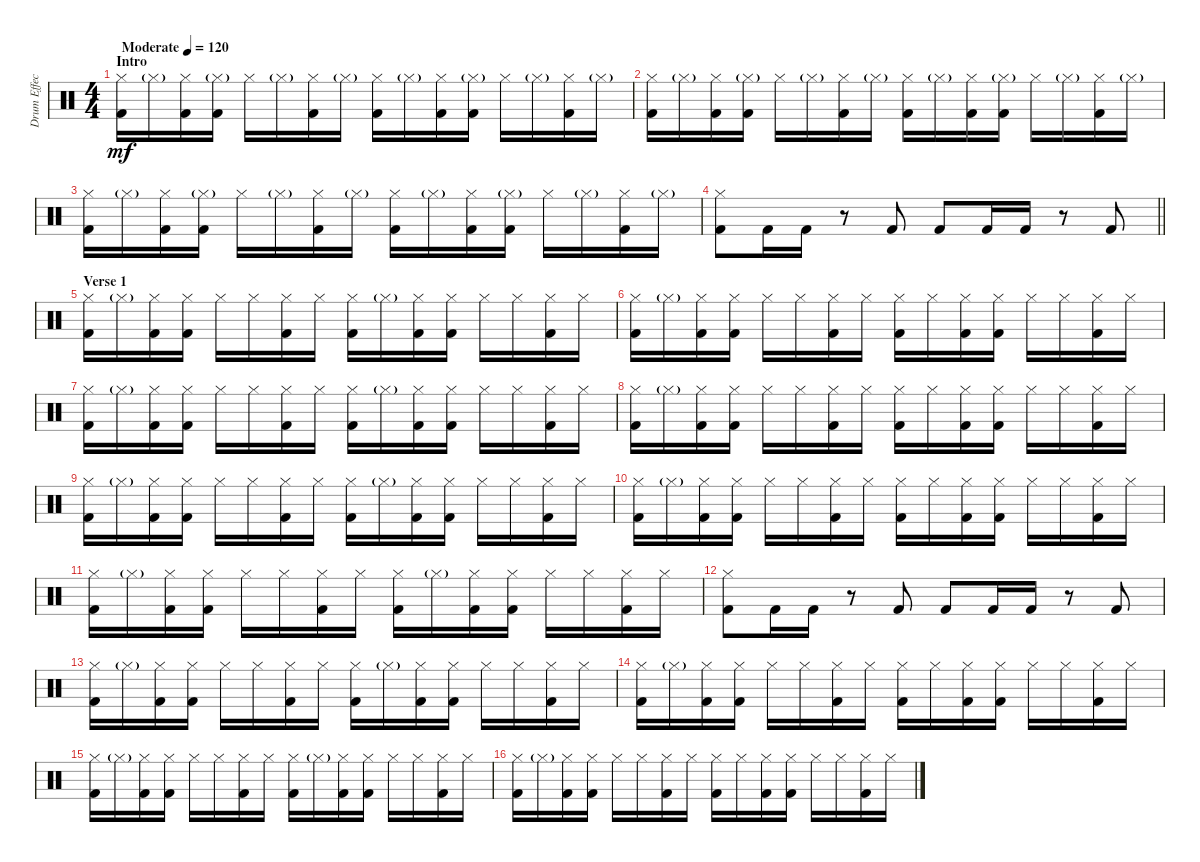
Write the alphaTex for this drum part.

\track ("Drum Effects" "Drum Effec") {instrument percussion}
\staff {score}
\articulation defaults
\ts (4 4)
\section ("" "Intro")
\tempo (120 "Moderate")
\clef neutral
\ks c
("Hi-Hat (closed)" "Kick (hit) 2").16{dy mf} "Hi-Hat (closed)"{g}.16 ("Hi-Hat (closed)" "Kick (hit) 2").16 ("Hi-Hat (closed)"{g} "Kick (hit) 2").16 "Hi-Hat (closed)".16 "Hi-Hat (closed)"{g}.16 ("Hi-Hat (closed)" "Kick (hit) 2").16 "Hi-Hat (closed)"{g}.16 ("Hi-Hat (closed)" "Kick (hit) 2").16 "Hi-Hat (closed)"{g}.16 ("Hi-Hat (closed)" "Kick (hit) 2").16 ("Hi-Hat (closed)"{g} "Kick (hit) 2").16 "Hi-Hat (closed)".16 "Hi-Hat (closed)"{g}.16 ("Hi-Hat (closed)" "Kick (hit) 2").16 "Hi-Hat (closed)"{g}.16 |
("Hi-Hat (closed)" "Kick (hit) 2").16 "Hi-Hat (closed)"{g}.16 ("Hi-Hat (closed)" "Kick (hit) 2").16 ("Hi-Hat (closed)"{g} "Kick (hit) 2").16 "Hi-Hat (closed)".16 "Hi-Hat (closed)"{g}.16 ("Hi-Hat (closed)" "Kick (hit) 2").16 "Hi-Hat (closed)"{g}.16 ("Hi-Hat (closed)" "Kick (hit) 2").16 "Hi-Hat (closed)"{g}.16 ("Hi-Hat (closed)" "Kick (hit) 2").16 ("Hi-Hat (closed)"{g} "Kick (hit) 2").16 "Hi-Hat (closed)".16 "Hi-Hat (closed)"{g}.16 ("Hi-Hat (closed)" "Kick (hit) 2").16 "Hi-Hat (closed)"{g}.16 |
("Hi-Hat (closed)" "Kick (hit) 2").16 "Hi-Hat (closed)"{g}.16 ("Hi-Hat (closed)" "Kick (hit) 2").16 ("Hi-Hat (closed)"{g} "Kick (hit) 2").16 "Hi-Hat (closed)".16 "Hi-Hat (closed)"{g}.16 ("Hi-Hat (closed)" "Kick (hit) 2").16 "Hi-Hat (closed)"{g}.16 ("Hi-Hat (closed)" "Kick (hit) 2").16 "Hi-Hat (closed)"{g}.16 ("Hi-Hat (closed)" "Kick (hit) 2").16 ("Hi-Hat (closed)"{g} "Kick (hit) 2").16 "Hi-Hat (closed)".16 "Hi-Hat (closed)"{g}.16 ("Hi-Hat (closed)" "Kick (hit) 2").16 "Hi-Hat (closed)"{g}.16 |
\barLineRight lightlight
("Hi-Hat (closed)" "Kick (hit) 2").8 "Kick (hit) 2".16 "Kick (hit) 2".16 r.8 "Kick (hit) 2".8 "Kick (hit) 2".8 "Kick (hit) 2".16 "Kick (hit) 2".16 r.8 "Kick (hit) 2".8 |
\section ("" "Verse 1")
("Hi-Hat (closed)" "Kick (hit) 2").16 "Hi-Hat (closed)"{g}.16 ("Hi-Hat (closed)" "Kick (hit) 2").16 ("Hi-Hat (closed)" "Kick (hit) 2").16 "Hi-Hat (closed)".16 "Hi-Hat (closed)".16 ("Hi-Hat (closed)" "Kick (hit) 2").16 "Hi-Hat (closed)".16 ("Hi-Hat (closed)" "Kick (hit) 2").16 "Hi-Hat (closed)"{g}.16 ("Hi-Hat (closed)" "Kick (hit) 2").16 ("Hi-Hat (closed)" "Kick (hit) 2").16 "Hi-Hat (closed)".16 "Hi-Hat (closed)".16 ("Hi-Hat (closed)" "Kick (hit) 2").16 "Hi-Hat (closed)".16 |
("Hi-Hat (closed)" "Kick (hit) 2").16 "Hi-Hat (closed)"{g}.16 ("Hi-Hat (closed)" "Kick (hit) 2").16 ("Hi-Hat (closed)" "Kick (hit) 2").16 "Hi-Hat (closed)".16 "Hi-Hat (closed)".16 ("Hi-Hat (closed)" "Kick (hit) 2").16 "Hi-Hat (closed)".16 ("Hi-Hat (closed)" "Kick (hit) 2").16 "Hi-Hat (closed)".16 ("Hi-Hat (closed)" "Kick (hit) 2").16 ("Hi-Hat (closed)" "Kick (hit) 2").16 "Hi-Hat (closed)".16 "Hi-Hat (closed)".16 ("Hi-Hat (closed)" "Kick (hit) 2").16 "Hi-Hat (closed)".16 |
("Hi-Hat (closed)" "Kick (hit) 2").16 "Hi-Hat (closed)"{g}.16 ("Hi-Hat (closed)" "Kick (hit) 2").16 ("Hi-Hat (closed)" "Kick (hit) 2").16 "Hi-Hat (closed)".16 "Hi-Hat (closed)".16 ("Hi-Hat (closed)" "Kick (hit) 2").16 "Hi-Hat (closed)".16 ("Hi-Hat (closed)" "Kick (hit) 2").16 "Hi-Hat (closed)"{g}.16 ("Hi-Hat (closed)" "Kick (hit) 2").16 ("Hi-Hat (closed)" "Kick (hit) 2").16 "Hi-Hat (closed)".16 "Hi-Hat (closed)".16 ("Hi-Hat (closed)" "Kick (hit) 2").16 "Hi-Hat (closed)".16 |
("Hi-Hat (closed)" "Kick (hit) 2").16 "Hi-Hat (closed)"{g}.16 ("Hi-Hat (closed)" "Kick (hit) 2").16 ("Hi-Hat (closed)" "Kick (hit) 2").16 "Hi-Hat (closed)".16 "Hi-Hat (closed)".16 ("Hi-Hat (closed)" "Kick (hit) 2").16 "Hi-Hat (closed)".16 ("Hi-Hat (closed)" "Kick (hit) 2").16 "Hi-Hat (closed)".16 ("Hi-Hat (closed)" "Kick (hit) 2").16 ("Hi-Hat (closed)" "Kick (hit) 2").16 "Hi-Hat (closed)".16 "Hi-Hat (closed)".16 ("Hi-Hat (closed)" "Kick (hit) 2").16 "Hi-Hat (closed)".16 |
("Hi-Hat (closed)" "Kick (hit) 2").16 "Hi-Hat (closed)"{g}.16 ("Hi-Hat (closed)" "Kick (hit) 2").16 ("Hi-Hat (closed)" "Kick (hit) 2").16 "Hi-Hat (closed)".16 "Hi-Hat (closed)".16 ("Hi-Hat (closed)" "Kick (hit) 2").16 "Hi-Hat (closed)".16 ("Hi-Hat (closed)" "Kick (hit) 2").16 "Hi-Hat (closed)"{g}.16 ("Hi-Hat (closed)" "Kick (hit) 2").16 ("Hi-Hat (closed)" "Kick (hit) 2").16 "Hi-Hat (closed)".16 "Hi-Hat (closed)".16 ("Hi-Hat (closed)" "Kick (hit) 2").16 "Hi-Hat (closed)".16 |
("Hi-Hat (closed)" "Kick (hit) 2").16 "Hi-Hat (closed)"{g}.16 ("Hi-Hat (closed)" "Kick (hit) 2").16 ("Hi-Hat (closed)" "Kick (hit) 2").16 "Hi-Hat (closed)".16 "Hi-Hat (closed)".16 ("Hi-Hat (closed)" "Kick (hit) 2").16 "Hi-Hat (closed)".16 ("Hi-Hat (closed)" "Kick (hit) 2").16 "Hi-Hat (closed)".16 ("Hi-Hat (closed)" "Kick (hit) 2").16 ("Hi-Hat (closed)" "Kick (hit) 2").16 "Hi-Hat (closed)".16 "Hi-Hat (closed)".16 ("Hi-Hat (closed)" "Kick (hit) 2").16 "Hi-Hat (closed)".16 |
("Hi-Hat (closed)" "Kick (hit) 2").16 "Hi-Hat (closed)"{g}.16 ("Hi-Hat (closed)" "Kick (hit) 2").16 ("Hi-Hat (closed)" "Kick (hit) 2").16 "Hi-Hat (closed)".16 "Hi-Hat (closed)".16 ("Hi-Hat (closed)" "Kick (hit) 2").16 "Hi-Hat (closed)".16 ("Hi-Hat (closed)" "Kick (hit) 2").16 "Hi-Hat (closed)"{g}.16 ("Hi-Hat (closed)" "Kick (hit) 2").16 ("Hi-Hat (closed)" "Kick (hit) 2").16 "Hi-Hat (closed)".16 "Hi-Hat (closed)".16 ("Hi-Hat (closed)" "Kick (hit) 2").16 "Hi-Hat (closed)".16 |
("Hi-Hat (closed)" "Kick (hit) 2").8 "Kick (hit) 2".16 "Kick (hit) 2".16 r.8 "Kick (hit) 2".8 "Kick (hit) 2".8 "Kick (hit) 2".16 "Kick (hit) 2".16 r.8 "Kick (hit) 2".8 |
("Hi-Hat (closed)" "Kick (hit) 2").16 "Hi-Hat (closed)"{g}.16 ("Hi-Hat (closed)" "Kick (hit) 2").16 ("Hi-Hat (closed)" "Kick (hit) 2").16 "Hi-Hat (closed)".16 "Hi-Hat (closed)".16 ("Hi-Hat (closed)" "Kick (hit) 2").16 "Hi-Hat (closed)".16 ("Hi-Hat (closed)" "Kick (hit) 2").16 "Hi-Hat (closed)"{g}.16 ("Hi-Hat (closed)" "Kick (hit) 2").16 ("Hi-Hat (closed)" "Kick (hit) 2").16 "Hi-Hat (closed)".16 "Hi-Hat (closed)".16 ("Hi-Hat (closed)" "Kick (hit) 2").16 "Hi-Hat (closed)".16 |
("Hi-Hat (closed)" "Kick (hit) 2").16 "Hi-Hat (closed)"{g}.16 ("Hi-Hat (closed)" "Kick (hit) 2").16 ("Hi-Hat (closed)" "Kick (hit) 2").16 "Hi-Hat (closed)".16 "Hi-Hat (closed)".16 ("Hi-Hat (closed)" "Kick (hit) 2").16 "Hi-Hat (closed)".16 ("Hi-Hat (closed)" "Kick (hit) 2").16 "Hi-Hat (closed)".16 ("Hi-Hat (closed)" "Kick (hit) 2").16 ("Hi-Hat (closed)" "Kick (hit) 2").16 "Hi-Hat (closed)".16 "Hi-Hat (closed)".16 ("Hi-Hat (closed)" "Kick (hit) 2").16 "Hi-Hat (closed)".16 |
("Hi-Hat (closed)" "Kick (hit) 2").16 "Hi-Hat (closed)"{g}.16 ("Hi-Hat (closed)" "Kick (hit) 2").16 ("Hi-Hat (closed)" "Kick (hit) 2").16 "Hi-Hat (closed)".16 "Hi-Hat (closed)".16 ("Hi-Hat (closed)" "Kick (hit) 2").16 "Hi-Hat (closed)".16 ("Hi-Hat (closed)" "Kick (hit) 2").16 "Hi-Hat (closed)"{g}.16 ("Hi-Hat (closed)" "Kick (hit) 2").16 ("Hi-Hat (closed)" "Kick (hit) 2").16 "Hi-Hat (closed)".16 "Hi-Hat (closed)".16 ("Hi-Hat (closed)" "Kick (hit) 2").16 "Hi-Hat (closed)".16 |
("Hi-Hat (closed)" "Kick (hit) 2").16 "Hi-Hat (closed)"{g}.16 ("Hi-Hat (closed)" "Kick (hit) 2").16 ("Hi-Hat (closed)" "Kick (hit) 2").16 "Hi-Hat (closed)".16 "Hi-Hat (closed)".16 ("Hi-Hat (closed)" "Kick (hit) 2").16 "Hi-Hat (closed)".16 ("Hi-Hat (closed)" "Kick (hit) 2").16 "Hi-Hat (closed)".16 ("Hi-Hat (closed)" "Kick (hit) 2").16 ("Hi-Hat (closed)" "Kick (hit) 2").16 "Hi-Hat (closed)".16 "Hi-Hat (closed)".16 ("Hi-Hat (closed)" "Kick (hit) 2").16 "Hi-Hat (closed)".16
